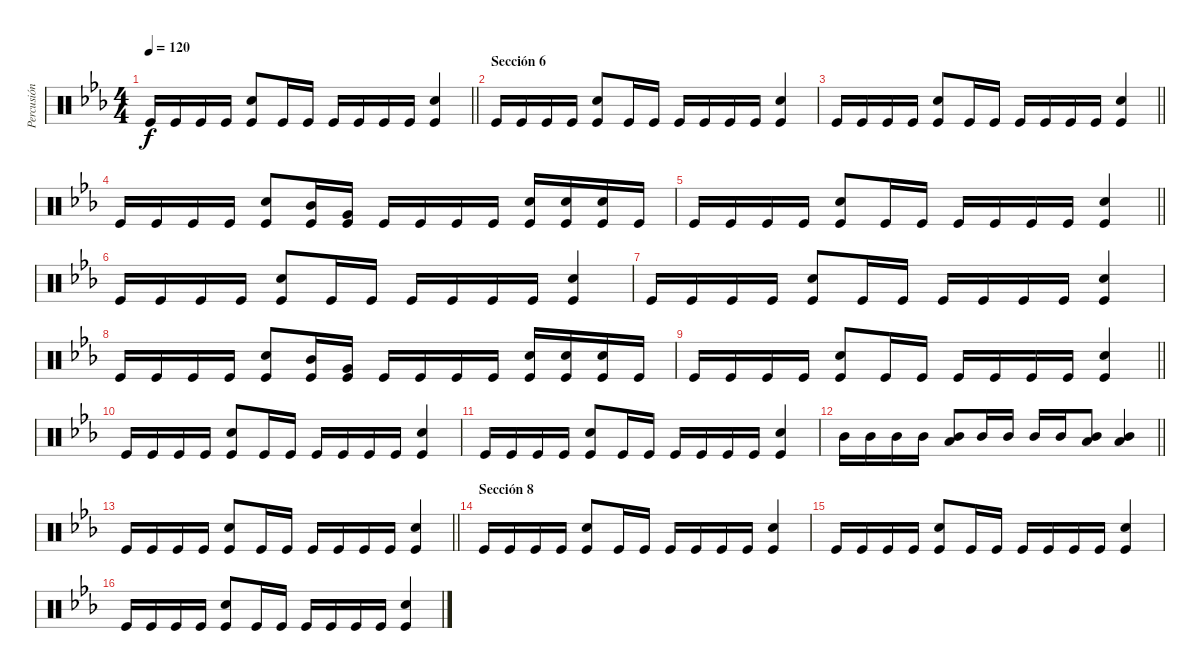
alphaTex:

\track ("Percusión" "Percusión") {instrument percussion}
\staff {score}
\articulation defaults
\ts (4 4)
\tempo 120
\clef neutral
\barLineRight lightlight
\ks eb "Kick (hit)".16{dy f} "Kick (hit)".16 "Kick (hit)".16 "Kick (hit)".16
("Snare (hit) 2" "Kick (hit)").8 "Kick (hit)".16 "Kick (hit)".16 "Kick (hit)".16 "Kick (hit)".16 "Kick (hit)".16 "Kick (hit)".16 ("Snare (hit) 2" "Kick (hit)").4 |
\section ("" "Sección 6")
"Kick (hit)".16 "Kick (hit)".16 "Kick (hit)".16 "Kick (hit)".16 ("Snare (hit) 2" "Kick (hit)").8 "Kick (hit)".16 "Kick (hit)".16 "Kick (hit)".16 "Kick (hit)".16 "Kick (hit)".16 "Kick (hit)".16 ("Snare (hit) 2" "Kick (hit)").4 |
\barLineRight lightlight "Kick (hit)".16 "Kick (hit)".16 "Kick (hit)".16 "Kick (hit)".16
("Snare (hit) 2" "Kick (hit)").8 "Kick (hit)".16 "Kick (hit)".16 "Kick (hit)".16 "Kick (hit)".16 "Kick (hit)".16 "Kick (hit)".16 ("Snare (hit) 2" "Kick (hit)").4 |
"Kick (hit)".16 "Kick (hit)".16 "Kick (hit)".16 "Kick (hit)".16 ("Snare (hit) 2" "Kick (hit)").8 ("Mid Tom (hit)" "Kick (hit)").16 ("Very Low Tom (hit)" "Kick (hit)").16 "Kick (hit)".16 "Kick (hit)".16 "Kick (hit)".16 "Kick (hit)".16 ("Snare (hit) 2" "Kick (hit)").16 ("Snare (hit) 2" "Kick (hit)").16 ("Snare (hit) 2" "Kick (hit)").16 "Kick (hit)".16 |
\barLineRight lightlight "Kick (hit)".16 "Kick (hit)".16 "Kick (hit)".16 "Kick (hit)".16
("Snare (hit) 2" "Kick (hit)").8 "Kick (hit)".16 "Kick (hit)".16 "Kick (hit)".16 "Kick (hit)".16 "Kick (hit)".16 "Kick (hit)".16 ("Snare (hit) 2" "Kick (hit)").4 |
"Kick (hit)".16 "Kick (hit)".16 "Kick (hit)".16 "Kick (hit)".16 ("Snare (hit) 2" "Kick (hit)").8 "Kick (hit)".16 "Kick (hit)".16 "Kick (hit)".16 "Kick (hit)".16 "Kick (hit)".16 "Kick (hit)".16 ("Snare (hit) 2" "Kick (hit)").4 |
"Kick (hit)".16 "Kick (hit)".16 "Kick (hit)".16 "Kick (hit)".16 ("Snare (hit) 2" "Kick (hit)").8 "Kick (hit)".16 "Kick (hit)".16 "Kick (hit)".16 "Kick (hit)".16 "Kick (hit)".16 "Kick (hit)".16 ("Snare (hit) 2" "Kick (hit)").4 |
"Kick (hit)".16 "Kick (hit)".16 "Kick (hit)".16 "Kick (hit)".16 ("Snare (hit) 2" "Kick (hit)").8 ("Mid Tom (hit)" "Kick (hit)").16 ("Very Low Tom (hit)" "Kick (hit)").16 "Kick (hit)".16 "Kick (hit)".16 "Kick (hit)".16 "Kick (hit)".16 ("Snare (hit) 2" "Kick (hit)").16 ("Snare (hit) 2" "Kick (hit)").16 ("Snare (hit) 2" "Kick (hit)").16 "Kick (hit)".16 |
\barLineRight lightlight "Kick (hit)".16 "Kick (hit)".16 "Kick (hit)".16 "Kick (hit)".16
("Snare (hit) 2" "Kick (hit)").8 "Kick (hit)".16 "Kick (hit)".16 "Kick (hit)".16 "Kick (hit)".16 "Kick (hit)".16 "Kick (hit)".16 ("Snare (hit) 2" "Kick (hit)").4 |
"Kick (hit)".16 "Kick (hit)".16 "Kick (hit)".16 "Kick (hit)".16 ("Snare (hit) 2" "Kick (hit)").8 "Kick (hit)".16 "Kick (hit)".16 "Kick (hit)".16 "Kick (hit)".16 "Kick (hit)".16 "Kick (hit)".16 ("Snare (hit) 2" "Kick (hit)").4 |
"Kick (hit)".16 "Kick (hit)".16 "Kick (hit)".16 "Kick (hit)".16 ("Snare (hit) 2" "Kick (hit)").8 "Kick (hit)".16 "Kick (hit)".16 "Kick (hit)".16 "Kick (hit)".16 "Kick (hit)".16 "Kick (hit)".16 ("Snare (hit) 2" "Kick (hit)").4 |
\barLineRight lightlight "Mid Tom (hit)".16 "Mid Tom (hit)".16 "Mid Tom (hit)".16 "Mid Tom (hit)".16
("Low Tom (hit)" "Mid Tom (hit)").8 "Mid Tom (hit)".16 "Mid Tom (hit)".16 "Mid Tom (hit)".16 "Mid Tom (hit)".16 ("Low Tom (hit)" "Mid Tom (hit)").8 ("Low Tom (hit)" "Mid Tom (hit)").4 |
\barLineRight lightlight "Kick (hit)".16 "Kick (hit)".16 "Kick (hit)".16 "Kick (hit)".16
("Snare (hit) 2" "Kick (hit)").8 "Kick (hit)".16 "Kick (hit)".16 "Kick (hit)".16 "Kick (hit)".16 "Kick (hit)".16 "Kick (hit)".16 ("Snare (hit) 2" "Kick (hit)").4 |
\section ("" "Sección 8")
"Kick (hit)".16 "Kick (hit)".16 "Kick (hit)".16 "Kick (hit)".16 ("Snare (hit) 2" "Kick (hit)").8 "Kick (hit)".16 "Kick (hit)".16 "Kick (hit)".16 "Kick (hit)".16 "Kick (hit)".16 "Kick (hit)".16 ("Snare (hit) 2" "Kick (hit)").4 |
"Kick (hit)".16 "Kick (hit)".16 "Kick (hit)".16 "Kick (hit)".16 ("Snare (hit) 2" "Kick (hit)").8 "Kick (hit)".16 "Kick (hit)".16 "Kick (hit)".16 "Kick (hit)".16 "Kick (hit)".16 "Kick (hit)".16 ("Snare (hit) 2" "Kick (hit)").4 |
"Kick (hit)".16 "Kick (hit)".16 "Kick (hit)".16 "Kick (hit)".16 ("Snare (hit) 2" "Kick (hit)").8 "Kick (hit)".16 "Kick (hit)".16 "Kick (hit)".16 "Kick (hit)".16 "Kick (hit)".16 "Kick (hit)".16 ("Snare (hit) 2" "Kick (hit)").4
